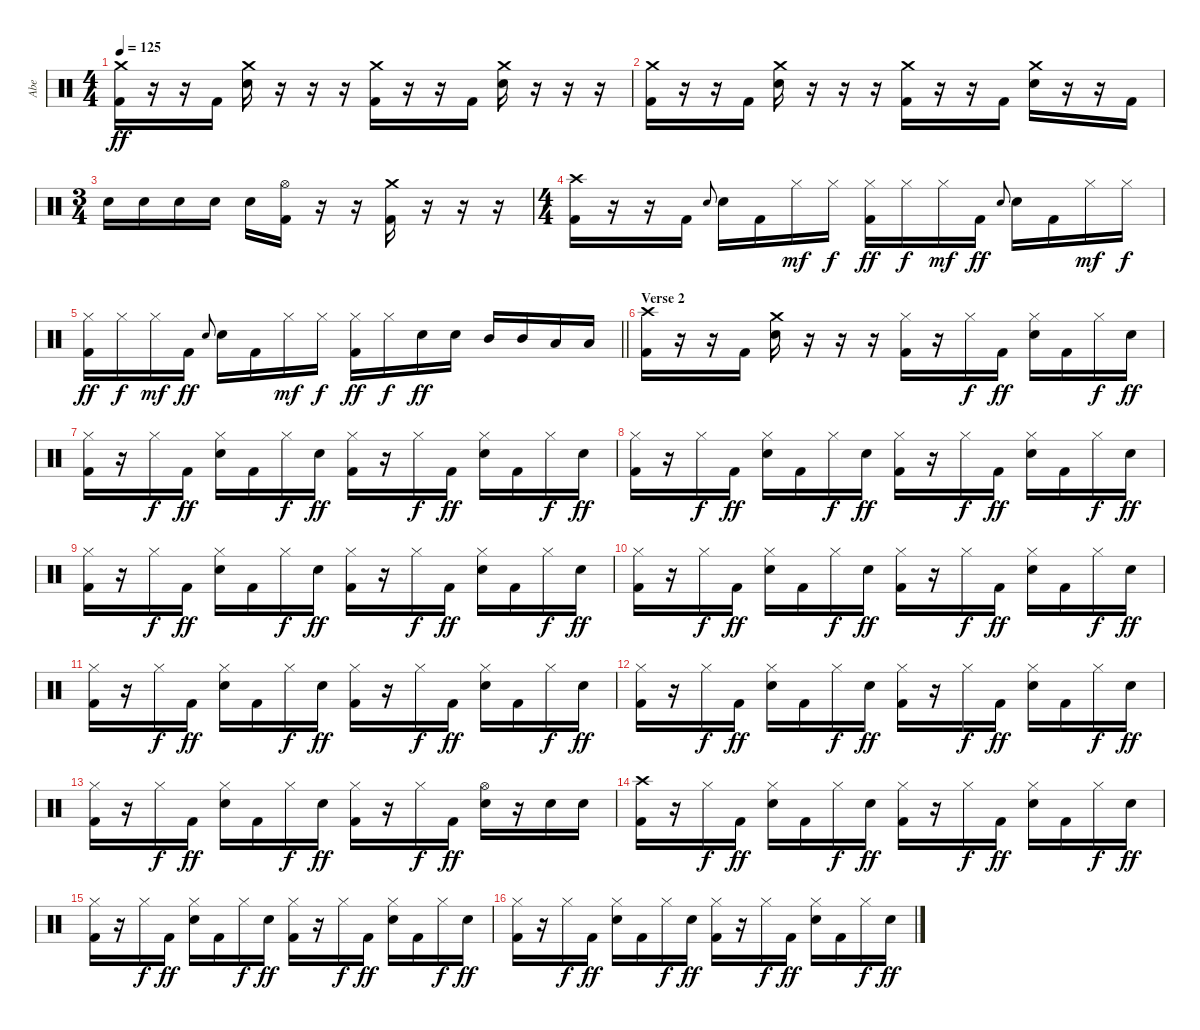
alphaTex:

\track ("Abe" "Abe") {instrument percussion}
\staff {score}
\articulation defaults
\ts (4 4)
\tempo 125
\clef neutral
\ks c
("Crash medium (hit)" "Kick (hit) 2").16{dy ff} r.16 r.16 "Kick (hit) 2".16 ("Crash medium (hit)" "Electric Snare (hit)").16 r.16 r.16 r.16 ("Crash medium (hit)" "Kick (hit) 2").16 r.16 r.16 "Kick (hit) 2".16 ("Crash medium (hit)" "Electric Snare (hit)").16 r.16 r.16 r.16 |
("Crash medium (hit)" "Kick (hit) 2").16 r.16 r.16 "Kick (hit) 2".16 ("Crash medium (hit)" "Electric Snare (hit)").16 r.16 r.16 r.16 ("Crash medium (hit)" "Kick (hit) 2").16 r.16 r.16 "Kick (hit) 2".16 ("Crash medium (hit)" "Electric Snare (hit)").16 r.16 r.16 "Kick (hit) 2".16 |
\ts (3 4)
"Electric Snare (hit)".16 "Electric Snare (hit)".16 "Electric Snare (hit)".16 "Electric Snare (hit)".16 "Electric Snare (hit)".16 ("Hi-Hat (open)" "Kick (hit) 2").16 r.16 r.16 ("Crash medium (hit)" "Kick (hit) 2").16 r.16 r.16 r.16 |
\ts (4 4)
("Crash high (hit)" "Kick (hit) 2").16 r.16 r.16 "Kick (hit) 2".16 "Electric Snare (hit)".8{gr onbeat} "Electric Snare (hit)".16 "Kick (hit) 2".16 "Hi-Hat (closed)".16{dy mf} "Hi-Hat (closed)".16{dy f} ("Hi-Hat (closed)" "Kick (hit) 2").16{dy ff} "Hi-Hat (closed)".16{dy f} "Hi-Hat (closed)".16{dy mf} "Kick (hit) 2".16{dy ff} "Electric Snare (hit)".8{gr onbeat} "Electric Snare (hit)".16 "Kick (hit) 2".16 "Hi-Hat (closed)".16{dy mf} "Hi-Hat (closed)".16{dy f} |
\barLineRight lightlight
("Hi-Hat (closed)" "Kick (hit) 2").16{dy ff} "Hi-Hat (closed)".16{dy f} "Hi-Hat (closed)".16{dy mf} "Kick (hit) 2".16{dy ff} "Electric Snare (hit)".8{gr onbeat} "Electric Snare (hit)".16 "Kick (hit) 2".16 "Hi-Hat (closed)".16{dy mf} "Hi-Hat (closed)".16{dy f} ("Hi-Hat (closed)" "Kick (hit) 2").16{dy ff} "Hi-Hat (closed)".16{dy f} "Electric Snare (hit)".16{dy ff} "Electric Snare (hit)".16 "Mid Tom (hit)".16 "Mid Tom (hit)".16 "Low Tom (hit)".16 "Low Tom (hit)".16 |
\section ("" "Verse 2")
("Crash high (hit)" "Kick (hit) 2").16 r.16 r.16 "Kick (hit) 2".16 ("Crash medium (hit)" "Electric Snare (hit)").16 r.16 r.16 r.16 ("Hi-Hat (closed)" "Kick (hit) 2").16 r.16 "Hi-Hat (closed)".16{dy f} "Kick (hit) 2".16{dy ff} ("Hi-Hat (closed)" "Electric Snare (hit)").16 "Kick (hit) 2".16 "Hi-Hat (closed)".16{dy f} "Electric Snare (hit)".16{dy ff} |
("Hi-Hat (closed)" "Kick (hit) 2").16 r.16 "Hi-Hat (closed)".16{dy f} "Kick (hit) 2".16{dy ff} ("Hi-Hat (closed)" "Electric Snare (hit)").16 "Kick (hit) 2".16 "Hi-Hat (closed)".16{dy f} "Electric Snare (hit)".16{dy ff} ("Hi-Hat (closed)" "Kick (hit) 2").16 r.16 "Hi-Hat (closed)".16{dy f} "Kick (hit) 2".16{dy ff} ("Hi-Hat (closed)" "Electric Snare (hit)").16 "Kick (hit) 2".16 "Hi-Hat (closed)".16{dy f} "Electric Snare (hit)".16{dy ff} |
("Hi-Hat (closed)" "Kick (hit) 2").16 r.16 "Hi-Hat (closed)".16{dy f} "Kick (hit) 2".16{dy ff} ("Hi-Hat (closed)" "Electric Snare (hit)").16 "Kick (hit) 2".16 "Hi-Hat (closed)".16{dy f} "Electric Snare (hit)".16{dy ff} ("Hi-Hat (closed)" "Kick (hit) 2").16 r.16 "Hi-Hat (closed)".16{dy f} "Kick (hit) 2".16{dy ff} ("Hi-Hat (closed)" "Electric Snare (hit)").16 "Kick (hit) 2".16 "Hi-Hat (closed)".16{dy f} "Electric Snare (hit)".16{dy ff} |
("Hi-Hat (closed)" "Kick (hit) 2").16 r.16 "Hi-Hat (closed)".16{dy f} "Kick (hit) 2".16{dy ff} ("Hi-Hat (closed)" "Electric Snare (hit)").16 "Kick (hit) 2".16 "Hi-Hat (closed)".16{dy f} "Electric Snare (hit)".16{dy ff} ("Hi-Hat (closed)" "Kick (hit) 2").16 r.16 "Hi-Hat (closed)".16{dy f} "Kick (hit) 2".16{dy ff} ("Hi-Hat (closed)" "Electric Snare (hit)").16 "Kick (hit) 2".16 "Hi-Hat (closed)".16{dy f} "Electric Snare (hit)".16{dy ff} |
("Hi-Hat (closed)" "Kick (hit) 2").16 r.16 "Hi-Hat (closed)".16{dy f} "Kick (hit) 2".16{dy ff} ("Hi-Hat (closed)" "Electric Snare (hit)").16 "Kick (hit) 2".16 "Hi-Hat (closed)".16{dy f} "Electric Snare (hit)".16{dy ff} ("Hi-Hat (closed)" "Kick (hit) 2").16 r.16 "Hi-Hat (closed)".16{dy f} "Kick (hit) 2".16{dy ff} ("Hi-Hat (closed)" "Electric Snare (hit)").16 "Kick (hit) 2".16 "Hi-Hat (closed)".16{dy f} "Electric Snare (hit)".16{dy ff} |
("Hi-Hat (closed)" "Kick (hit) 2").16 r.16 "Hi-Hat (closed)".16{dy f} "Kick (hit) 2".16{dy ff} ("Hi-Hat (closed)" "Electric Snare (hit)").16 "Kick (hit) 2".16 "Hi-Hat (closed)".16{dy f} "Electric Snare (hit)".16{dy ff} ("Hi-Hat (closed)" "Kick (hit) 2").16 r.16 "Hi-Hat (closed)".16{dy f} "Kick (hit) 2".16{dy ff} ("Hi-Hat (closed)" "Electric Snare (hit)").16 "Kick (hit) 2".16 "Hi-Hat (closed)".16{dy f} "Electric Snare (hit)".16{dy ff} |
("Hi-Hat (closed)" "Kick (hit) 2").16 r.16 "Hi-Hat (closed)".16{dy f} "Kick (hit) 2".16{dy ff} ("Hi-Hat (closed)" "Electric Snare (hit)").16 "Kick (hit) 2".16 "Hi-Hat (closed)".16{dy f} "Electric Snare (hit)".16{dy ff} ("Hi-Hat (closed)" "Kick (hit) 2").16 r.16 "Hi-Hat (closed)".16{dy f} "Kick (hit) 2".16{dy ff} ("Hi-Hat (closed)" "Electric Snare (hit)").16 "Kick (hit) 2".16 "Hi-Hat (closed)".16{dy f} "Electric Snare (hit)".16{dy ff} |
("Hi-Hat (closed)" "Kick (hit) 2").16 r.16 "Hi-Hat (closed)".16{dy f} "Kick (hit) 2".16{dy ff} ("Hi-Hat (closed)" "Electric Snare (hit)").16 "Kick (hit) 2".16 "Hi-Hat (closed)".16{dy f} "Electric Snare (hit)".16{dy ff} ("Hi-Hat (closed)" "Kick (hit) 2").16 r.16 "Hi-Hat (closed)".16{dy f} "Kick (hit) 2".16{dy ff} ("Hi-Hat (open)" "Electric Snare (hit)").16 r.16 "Electric Snare (hit)".16 "Electric Snare (hit)".16 |
("Crash high (hit)" "Kick (hit) 2").16 r.16 "Hi-Hat (closed)".16{dy f} "Kick (hit) 2".16{dy ff} ("Hi-Hat (closed)" "Electric Snare (hit)").16 "Kick (hit) 2".16 "Hi-Hat (closed)".16{dy f} "Electric Snare (hit)".16{dy ff} ("Hi-Hat (closed)" "Kick (hit) 2").16 r.16 "Hi-Hat (closed)".16{dy f} "Kick (hit) 2".16{dy ff} ("Hi-Hat (closed)" "Electric Snare (hit)").16 "Kick (hit) 2".16 "Hi-Hat (closed)".16{dy f} "Electric Snare (hit)".16{dy ff} |
("Hi-Hat (closed)" "Kick (hit) 2").16 r.16 "Hi-Hat (closed)".16{dy f} "Kick (hit) 2".16{dy ff} ("Hi-Hat (closed)" "Electric Snare (hit)").16 "Kick (hit) 2".16 "Hi-Hat (closed)".16{dy f} "Electric Snare (hit)".16{dy ff} ("Hi-Hat (closed)" "Kick (hit) 2").16 r.16 "Hi-Hat (closed)".16{dy f} "Kick (hit) 2".16{dy ff} ("Hi-Hat (closed)" "Electric Snare (hit)").16 "Kick (hit) 2".16 "Hi-Hat (closed)".16{dy f} "Electric Snare (hit)".16{dy ff} |
("Hi-Hat (closed)" "Kick (hit) 2").16 r.16 "Hi-Hat (closed)".16{dy f} "Kick (hit) 2".16{dy ff} ("Hi-Hat (closed)" "Electric Snare (hit)").16 "Kick (hit) 2".16 "Hi-Hat (closed)".16{dy f} "Electric Snare (hit)".16{dy ff} ("Hi-Hat (closed)" "Kick (hit) 2").16 r.16 "Hi-Hat (closed)".16{dy f} "Kick (hit) 2".16{dy ff} ("Hi-Hat (closed)" "Electric Snare (hit)").16 "Kick (hit) 2".16 "Hi-Hat (closed)".16{dy f} "Electric Snare (hit)".16{dy ff}
